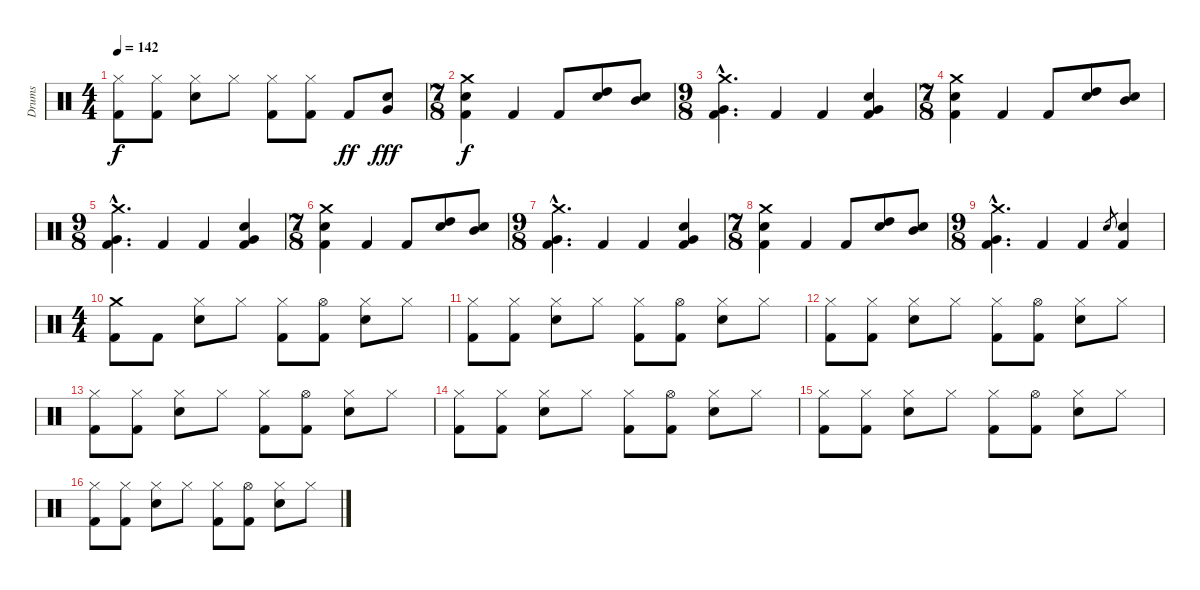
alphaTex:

\track ("Drums" "Drums") {instrument percussion}
\staff {score}
\articulation defaults
\ts (4 4)
\tempo 142
\clef neutral
\ks c
("Hi-Hat (closed)" "Kick (hit) 2").8{dy f} ("Hi-Hat (closed)" "Kick (hit) 2").8 ("Hi-Hat (closed)" "Electric Snare (hit)").8 "Hi-Hat (closed)".8 ("Hi-Hat (closed)" "Kick (hit) 2").8 ("Hi-Hat (closed)" "Kick (hit) 2").8 "Kick (hit) 2".8{dy ff} ("Very Low Tom (hit)" "Electric Snare (hit)").8{dy fff} |
\ts (7 8)
("Crash medium (hit)" "Electric Snare (hit)" "Kick (hit) 2").4{dy f} "Kick (hit) 2".4 "Kick (hit) 2".8 ("High Tom (hit)" "Electric Snare (hit)").8 ("Mid Tom (hit)" "Electric Snare (hit)").8 |
\ts (9 8)
("Crash medium (hit)"{hac} "Very Low Tom (hit)"{hac} "Kick (hit) 2"{hac}).4{d} "Kick (hit) 2".4 "Kick (hit) 2".4 ("Very Low Tom (hit)" "Electric Snare (hit)" "Kick (hit) 2").4 |
\ts (7 8)
("Crash medium (hit)" "Electric Snare (hit)" "Kick (hit) 2").4 "Kick (hit) 2".4 "Kick (hit) 2".8 ("High Tom (hit)" "Electric Snare (hit)").8 ("Mid Tom (hit)" "Electric Snare (hit)").8 |
\ts (9 8)
("Crash medium (hit)"{hac} "Very Low Tom (hit)"{hac} "Kick (hit) 2"{hac}).4{d} "Kick (hit) 2".4 "Kick (hit) 2".4 ("Very Low Tom (hit)" "Electric Snare (hit)" "Kick (hit) 2").4 |
\ts (7 8)
("Crash medium (hit)" "Electric Snare (hit)" "Kick (hit) 2").4 "Kick (hit) 2".4 "Kick (hit) 2".8 ("High Tom (hit)" "Electric Snare (hit)").8 ("Mid Tom (hit)" "Electric Snare (hit)").8 |
\ts (9 8)
("Crash medium (hit)"{hac} "Very Low Tom (hit)"{hac} "Kick (hit) 2"{hac}).4{d} "Kick (hit) 2".4 "Kick (hit) 2".4 ("Very Low Tom (hit)" "Electric Snare (hit)" "Kick (hit) 2").4 |
\ts (7 8)
("Crash medium (hit)" "Electric Snare (hit)" "Kick (hit) 2").4 "Kick (hit) 2".4 "Kick (hit) 2".8 ("High Tom (hit)" "Electric Snare (hit)").8 ("Mid Tom (hit)" "Electric Snare (hit)").8 |
\ts (9 8)
("Crash medium (hit)"{hac} "Very Low Tom (hit)"{hac} "Kick (hit) 2"{hac}).4{d} "Kick (hit) 2".4 "Kick (hit) 2".4 "Electric Snare (hit)".8{gr} ("Electric Snare (hit)" "Kick (hit) 2").4 |
\ts (4 4)
("Crash medium (hit)" "Kick (hit) 2").8 "Kick (hit) 2".8 ("Hi-Hat (closed)" "Electric Snare (hit)").8 "Hi-Hat (closed)".8 ("Hi-Hat (closed)" "Kick (hit) 2").8 ("Hi-Hat (open)" "Kick (hit) 2").8 ("Hi-Hat (closed)" "Electric Snare (hit)").8 "Hi-Hat (closed)".8 |
("Hi-Hat (closed)" "Kick (hit) 2").8 ("Hi-Hat (closed)" "Kick (hit) 2").8 ("Hi-Hat (closed)" "Electric Snare (hit)").8 "Hi-Hat (closed)".8 ("Hi-Hat (closed)" "Kick (hit) 2").8 ("Hi-Hat (open)" "Kick (hit) 2").8 ("Hi-Hat (closed)" "Electric Snare (hit)").8 "Hi-Hat (closed)".8 |
("Hi-Hat (closed)" "Kick (hit) 2").8 ("Hi-Hat (closed)" "Kick (hit) 2").8 ("Hi-Hat (closed)" "Electric Snare (hit)").8 "Hi-Hat (closed)".8 ("Hi-Hat (closed)" "Kick (hit) 2").8 ("Hi-Hat (open)" "Kick (hit) 2").8 ("Hi-Hat (closed)" "Electric Snare (hit)").8 "Hi-Hat (closed)".8 |
("Hi-Hat (closed)" "Kick (hit) 2").8 ("Hi-Hat (closed)" "Kick (hit) 2").8 ("Hi-Hat (closed)" "Electric Snare (hit)").8 "Hi-Hat (closed)".8 ("Hi-Hat (closed)" "Kick (hit) 2").8 ("Hi-Hat (open)" "Kick (hit) 2").8 ("Hi-Hat (closed)" "Electric Snare (hit)").8 "Hi-Hat (closed)".8 |
("Hi-Hat (closed)" "Kick (hit) 2").8 ("Hi-Hat (closed)" "Kick (hit) 2").8 ("Hi-Hat (closed)" "Electric Snare (hit)").8 "Hi-Hat (closed)".8 ("Hi-Hat (closed)" "Kick (hit) 2").8 ("Hi-Hat (open)" "Kick (hit) 2").8 ("Hi-Hat (closed)" "Electric Snare (hit)").8 "Hi-Hat (closed)".8 |
("Hi-Hat (closed)" "Kick (hit) 2").8 ("Hi-Hat (closed)" "Kick (hit) 2").8 ("Hi-Hat (closed)" "Electric Snare (hit)").8 "Hi-Hat (closed)".8 ("Hi-Hat (closed)" "Kick (hit) 2").8 ("Hi-Hat (open)" "Kick (hit) 2").8 ("Hi-Hat (closed)" "Electric Snare (hit)").8 "Hi-Hat (closed)".8 |
("Hi-Hat (closed)" "Kick (hit) 2").8 ("Hi-Hat (closed)" "Kick (hit) 2").8 ("Hi-Hat (closed)" "Electric Snare (hit)").8 "Hi-Hat (closed)".8 ("Hi-Hat (closed)" "Kick (hit) 2").8 ("Hi-Hat (open)" "Kick (hit) 2").8 ("Hi-Hat (closed)" "Electric Snare (hit)").8 "Hi-Hat (closed)".8
